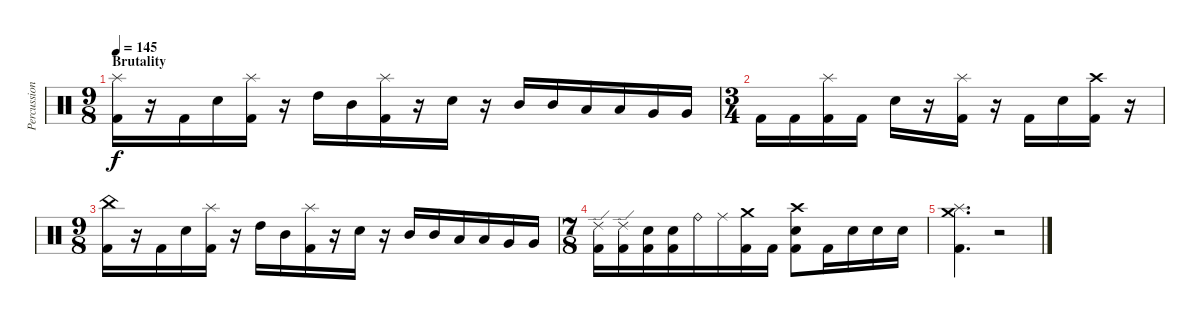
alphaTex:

\track ("Percussion" "Percussion") {instrument percussion}
\staff {score}
\articulation defaults
\ts (9 8)
\section ("" "Brutality")
\tempo 145
\clef neutral
\ks c
("Splash (hit)" "Kick (hit) 2").16{dy f} r.16 "Kick (hit) 2".16 "Electric Snare (hit)".16 ("Splash (hit)" "Kick (hit) 2").16 r.16 "High Tom (hit)".16 "Mid Tom (hit)".16 ("Splash (hit)" "Kick (hit) 2").16 r.16 "Electric Snare (hit)".16 r.16 "Mid Tom (hit)".16 "Mid Tom (hit)".16 "Low Tom (hit)".16 "Low Tom (hit)".16 "Very Low Tom (hit)".16 "Very Low Tom (hit)".16 |
\ts (3 4)
"Kick (hit) 2".16 "Kick (hit) 2".16 ("Splash (hit)" "Kick (hit) 2").16 "Kick (hit) 2".16 "Electric Snare (hit)".16 r.16 ("Splash (hit)" "Kick (hit) 2").16 r.16 "Kick (hit) 2".16 "Electric Snare (hit)".16 ("Crash high (hit)" "Kick (hit) 2").16 r.16 |
\ts (9 8)
("China (hit)" "Kick (hit) 2").16 r.16 "Kick (hit) 2".16 "Electric Snare (hit)".16 ("Splash (hit)" "Kick (hit) 2").16 r.16 "High Tom (hit)".16 "Mid Tom (hit)".16 ("Splash (hit)" "Kick (hit) 2").16 r.16 "Electric Snare (hit)".16 r.16 "Mid Tom (hit)".16 "Mid Tom (hit)".16 "Low Tom (hit)".16 "Low Tom (hit)".16 "Very Low Tom (hit)".16 "Very Low Tom (hit)".16 |
\ts (7 8)
("Ride (edge) 2" "Kick (hit) 2").16 ("Ride (edge) 2" "Kick (hit) 2").16 ("Electric Snare (hit)" "Kick (hit) 2").16 ("Electric Snare (hit)" "Kick (hit) 2").16 "Ride (bell)".16 "Ride (middle)".16 ("Crash medium (hit)" "Kick (hit) 2").16 "Kick (hit) 2".16 ("Crash high (hit)" "Electric Snare (hit)" "Kick (hit) 2").8 "Kick (hit) 2".16 "Electric Snare (hit)".16 "Electric Snare (hit)".16 "Electric Snare (hit)".16 |
("Crash medium (hit)" "Splash (hit)" "Kick (hit) 2").4{d} r.2
